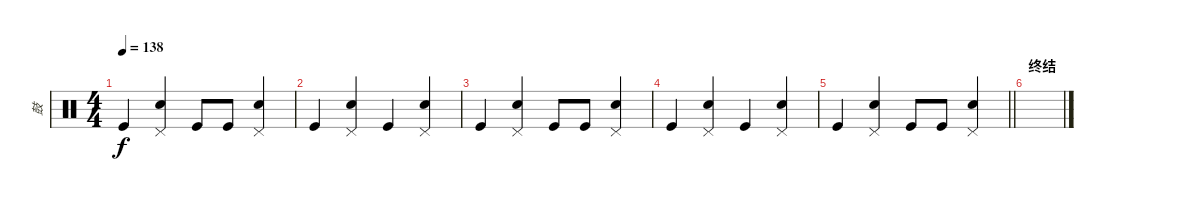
\track ("鼓" "鼓") {instrument percussion}
\staff {score}
\articulation defaults
\ts (4 4)
\tempo 138
\clef neutral
\ks c "Kick (hit)".4{dy f}
("Snare (hit) 2" "Pedal Hi-Hat (hit)").4 "Kick (hit)".8 "Kick (hit)".8 ("Snare (hit) 2" "Pedal Hi-Hat (hit)").4 |
"Kick (hit)".4 ("Snare (hit) 2" "Pedal Hi-Hat (hit)").4 "Kick (hit)".4 ("Snare (hit) 2" "Pedal Hi-Hat (hit)").4 |
"Kick (hit)".4 ("Snare (hit) 2" "Pedal Hi-Hat (hit)").4 "Kick (hit)".8 "Kick (hit)".8 ("Snare (hit) 2" "Pedal Hi-Hat (hit)").4 |
"Kick (hit)".4 ("Snare (hit) 2" "Pedal Hi-Hat (hit)").4 "Kick (hit)".4 ("Snare (hit) 2" "Pedal Hi-Hat (hit)").4 |
\barLineRight lightlight "Kick (hit)".4
("Snare (hit) 2" "Pedal Hi-Hat (hit)").4 "Kick (hit)".8 "Kick (hit)".8 ("Snare (hit) 2" "Pedal Hi-Hat (hit)").4 |
\section ("" "终结")
